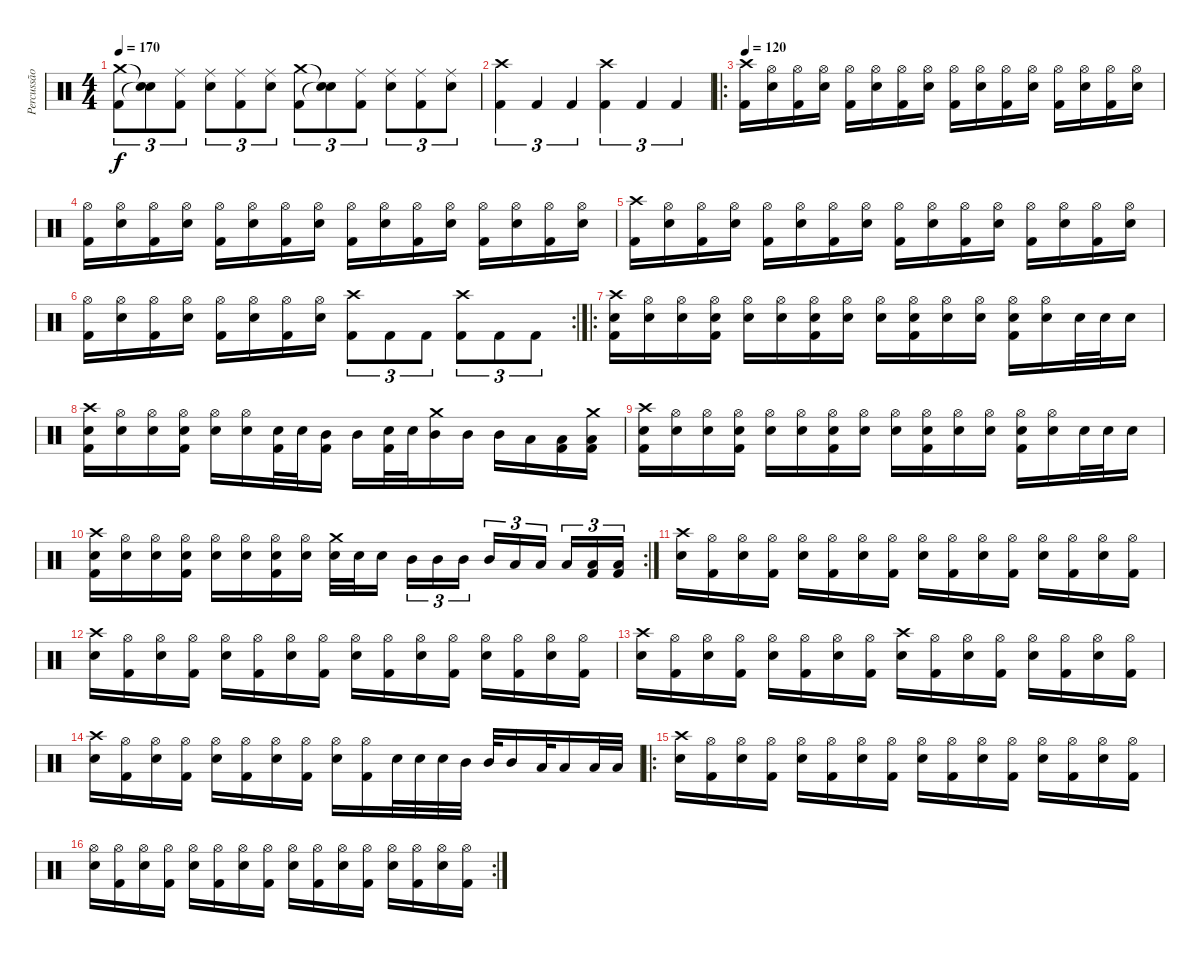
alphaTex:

\track ("Percussão" "Percussão") {instrument percussion}
\staff {score}
\articulation defaults
\ts (4 4)
\tempo 170
\clef neutral
\ks c
("Crash medium (hit)" "Kick (hit) 2").8{tu (3 2) dy f} ("Snare (hit)"{t} "Snare (hit)"{t}).8{tu (3 2)} ("Ride (middle)" "Kick (hit) 2").8{tu (3 2)} ("Ride (middle)" "Snare (hit) 2").8{tu (3 2)} ("Ride (middle)" "Kick (hit) 2").8{tu (3 2)} ("Ride (middle)" "Snare (hit) 2").8{tu (3 2)} ("Crash medium (hit)" "Kick (hit) 2").8{tu (3 2)} ("Snare (hit)"{t} "Snare (hit)"{t}).8{tu (3 2)} ("Ride (middle)" "Kick (hit) 2").8{tu (3 2)} ("Ride (middle)" "Snare (hit) 2").8{tu (3 2)} ("Ride (middle)" "Kick (hit) 2").8{tu (3 2)} ("Ride (middle)" "Snare (hit) 2").8{tu (3 2)} |
("Crash high (hit)" "Kick (hit) 2").4{tu (3 2)} "Kick (hit) 2".4{tu (3 2)} "Kick (hit) 2".4{tu (3 2)} ("Crash high (hit)" "Kick (hit) 2").4{tu (3 2)} "Kick (hit) 2".4{tu (3 2)} "Kick (hit) 2".4{tu (3 2)} |
\ro
\tempo 120
("Crash high (hit)" "Kick (hit) 2").16 ("Hi-Hat (open)" "Snare (hit) 2").16 ("Hi-Hat (open)" "Kick (hit) 2").16 ("Hi-Hat (open)" "Snare (hit) 2").16 ("Hi-Hat (open)" "Kick (hit) 2").16 ("Hi-Hat (open)" "Snare (hit) 2").16 ("Hi-Hat (open)" "Kick (hit) 2").16 ("Hi-Hat (open)" "Snare (hit) 2").16 ("Hi-Hat (open)" "Kick (hit) 2").16 ("Hi-Hat (open)" "Snare (hit) 2").16 ("Hi-Hat (open)" "Kick (hit) 2").16 ("Hi-Hat (open)" "Snare (hit) 2").16 ("Hi-Hat (open)" "Kick (hit) 2").16 ("Hi-Hat (open)" "Snare (hit) 2").16 ("Hi-Hat (open)" "Kick (hit) 2").16 ("Hi-Hat (open)" "Snare (hit) 2").16 |
("Hi-Hat (open)" "Kick (hit) 2").16 ("Hi-Hat (open)" "Snare (hit) 2").16 ("Hi-Hat (open)" "Kick (hit) 2").16 ("Hi-Hat (open)" "Snare (hit) 2").16 ("Hi-Hat (open)" "Kick (hit) 2").16 ("Hi-Hat (open)" "Snare (hit) 2").16 ("Hi-Hat (open)" "Kick (hit) 2").16 ("Hi-Hat (open)" "Snare (hit) 2").16 ("Hi-Hat (open)" "Kick (hit) 2").16 ("Hi-Hat (open)" "Snare (hit) 2").16 ("Hi-Hat (open)" "Kick (hit) 2").16 ("Hi-Hat (open)" "Snare (hit) 2").16 ("Hi-Hat (open)" "Kick (hit) 2").16 ("Hi-Hat (open)" "Snare (hit) 2").16 ("Hi-Hat (open)" "Kick (hit) 2").16 ("Hi-Hat (open)" "Snare (hit) 2").16 |
("Crash high (hit)" "Kick (hit) 2").16 ("Hi-Hat (open)" "Snare (hit) 2").16 ("Hi-Hat (open)" "Kick (hit) 2").16 ("Hi-Hat (open)" "Snare (hit) 2").16 ("Hi-Hat (open)" "Kick (hit) 2").16 ("Hi-Hat (open)" "Snare (hit) 2").16 ("Hi-Hat (open)" "Kick (hit) 2").16 ("Hi-Hat (open)" "Snare (hit) 2").16 ("Hi-Hat (open)" "Kick (hit) 2").16 ("Hi-Hat (open)" "Snare (hit) 2").16 ("Hi-Hat (open)" "Kick (hit) 2").16 ("Hi-Hat (open)" "Snare (hit) 2").16 ("Hi-Hat (open)" "Kick (hit) 2").16 ("Hi-Hat (open)" "Snare (hit) 2").16 ("Hi-Hat (open)" "Kick (hit) 2").16 ("Hi-Hat (open)" "Snare (hit) 2").16 |
\rc 2
("Hi-Hat (open)" "Kick (hit) 2").16 ("Hi-Hat (open)" "Snare (hit) 2").16 ("Hi-Hat (open)" "Kick (hit) 2").16 ("Hi-Hat (open)" "Snare (hit) 2").16 ("Hi-Hat (open)" "Kick (hit) 2").16 ("Hi-Hat (open)" "Snare (hit) 2").16 ("Hi-Hat (open)" "Kick (hit) 2").16 ("Hi-Hat (open)" "Snare (hit) 2").16 ("Kick (hit) 2" "Crash high (hit)").8{tu (3 2)} "Kick (hit) 2".8{tu (3 2)} "Kick (hit) 2".8{tu (3 2)} ("Kick (hit) 2" "Crash high (hit)").8{tu (3 2)} "Kick (hit) 2".8{tu (3 2)} "Kick (hit) 2".8{tu (3 2)} |
\ro
("Kick (hit) 2" "Crash high (hit)" "Snare (hit) 2").16 ("Hi-Hat (open)" "Snare (hit) 2").16 ("Hi-Hat (open)" "Snare (hit) 2").16 ("Kick (hit) 2" "Hi-Hat (open)" "Snare (hit) 2").16 ("Hi-Hat (open)" "Snare (hit) 2").16 ("Hi-Hat (open)" "Snare (hit) 2").16 ("Kick (hit) 2" "Hi-Hat (open)" "Snare (hit) 2").16 ("Hi-Hat (open)" "Snare (hit) 2").16 ("Hi-Hat (open)" "Snare (hit) 2").16 ("Kick (hit) 2" "Hi-Hat (open)" "Snare (hit) 2").16 ("Hi-Hat (open)" "Snare (hit) 2").16 ("Hi-Hat (open)" "Snare (hit) 2").16 ("Kick (hit) 2" "Hi-Hat (open)" "Snare (hit) 2").16 ("Hi-Hat (open)" "Snare (hit) 2").16 "Snare (hit) 2".32 "Snare (hit) 2".32 "Snare (hit) 2".16 |
("Kick (hit) 2" "Crash high (hit)" "Snare (hit) 2").16 ("Hi-Hat (open)" "Snare (hit) 2").16 ("Hi-Hat (open)" "Snare (hit) 2").16 ("Kick (hit) 2" "Hi-Hat (open)" "Snare (hit) 2").16 ("Hi-Hat (open)" "Snare (hit) 2").16 ("Hi-Hat (open)" "Snare (hit) 2").16 ("Kick (hit) 2" "Snare (hit) 2").32 "Snare (hit) 2".32 ("Kick (hit) 2" "Mid Tom (hit)").16 "Mid Tom (hit)".16 ("Kick (hit) 2" "Snare (hit) 2").32 "Snare (hit) 2".32 ("Crash medium (hit)" "Mid Tom (hit)").16 "Mid Tom (hit)".16 "Mid Tom (hit)".16 "Low Tom (hit)".16 ("Kick (hit) 2" "Low Tom (hit)").16 ("Kick (hit) 2" "Crash medium (hit)" "Low Tom (hit)").16 |
("Kick (hit) 2" "Crash high (hit)" "Snare (hit) 2").16 ("Hi-Hat (open)" "Snare (hit) 2").16 ("Hi-Hat (open)" "Snare (hit) 2").16 ("Kick (hit) 2" "Hi-Hat (open)" "Snare (hit) 2").16 ("Hi-Hat (open)" "Snare (hit) 2").16 ("Hi-Hat (open)" "Snare (hit) 2").16 ("Kick (hit) 2" "Hi-Hat (open)" "Snare (hit) 2").16 ("Hi-Hat (open)" "Snare (hit) 2").16 ("Hi-Hat (open)" "Snare (hit) 2").16 ("Kick (hit) 2" "Hi-Hat (open)" "Snare (hit) 2").16 ("Hi-Hat (open)" "Snare (hit) 2").16 ("Hi-Hat (open)" "Snare (hit) 2").16 ("Kick (hit) 2" "Hi-Hat (open)" "Snare (hit) 2").16 ("Hi-Hat (open)" "Snare (hit) 2").16 "Snare (hit) 2".32 "Snare (hit) 2".32 "Snare (hit) 2".16 |
\rc 2
("Kick (hit) 2" "Crash high (hit)" "Snare (hit) 2").16 ("Hi-Hat (open)" "Snare (hit) 2").16 ("Hi-Hat (open)" "Snare (hit) 2").16 ("Kick (hit) 2" "Hi-Hat (open)" "Snare (hit) 2").16 ("Hi-Hat (open)" "Snare (hit) 2").16 ("Hi-Hat (open)" "Snare (hit) 2").16 ("Kick (hit) 2" "Hi-Hat (open)" "Snare (hit) 2").16 ("Hi-Hat (open)" "Snare (hit) 2").16 ("Crash medium (hit)" "Snare (hit) 2").32 "Snare (hit) 2".32 "Snare (hit) 2".16 "Mid Tom (hit)".16{tu (3 2)} "Mid Tom (hit)".16{tu (3 2)} "Mid Tom (hit)".16{tu (3 2)} "Mid Tom (hit)".16{tu (3 2)} "Low Tom (hit)".16{tu (3 2)} "Low Tom (hit)".16{tu (3 2)} "Low Tom (hit)".16{tu (3 2)} ("Kick (hit) 2" "Low Tom (hit)").16{tu (3 2)} ("Kick (hit) 2" "Low Tom (hit)").16{tu (3 2)} |
("Crash high (hit)" "Snare (hit) 2").16 ("Hi-Hat (open)" "Kick (hit) 2").16 ("Hi-Hat (open)" "Snare (hit) 2").16 ("Hi-Hat (open)" "Kick (hit) 2").16 ("Hi-Hat (open)" "Snare (hit) 2").16 ("Hi-Hat (open)" "Kick (hit) 2").16 ("Hi-Hat (open)" "Snare (hit) 2").16 ("Hi-Hat (open)" "Kick (hit) 2").16 ("Hi-Hat (open)" "Snare (hit) 2").16 ("Hi-Hat (open)" "Kick (hit) 2").16 ("Hi-Hat (open)" "Snare (hit) 2").16 ("Hi-Hat (open)" "Kick (hit) 2").16 ("Hi-Hat (open)" "Snare (hit) 2").16 ("Hi-Hat (open)" "Kick (hit) 2").16 ("Hi-Hat (open)" "Snare (hit) 2").16 ("Hi-Hat (open)" "Kick (hit) 2").16 |
("Crash high (hit)" "Snare (hit) 2").16 ("Hi-Hat (open)" "Kick (hit) 2").16 ("Hi-Hat (open)" "Snare (hit) 2").16 ("Hi-Hat (open)" "Kick (hit) 2").16 ("Hi-Hat (open)" "Snare (hit) 2").16 ("Hi-Hat (open)" "Kick (hit) 2").16 ("Hi-Hat (open)" "Snare (hit) 2").16 ("Hi-Hat (open)" "Kick (hit) 2").16 ("Hi-Hat (open)" "Snare (hit) 2").16 ("Hi-Hat (open)" "Kick (hit) 2").16 ("Hi-Hat (open)" "Snare (hit) 2").16 ("Hi-Hat (open)" "Kick (hit) 2").16 ("Hi-Hat (open)" "Snare (hit) 2").16 ("Hi-Hat (open)" "Kick (hit) 2").16 ("Hi-Hat (open)" "Snare (hit) 2").16 ("Hi-Hat (open)" "Kick (hit) 2").16 |
("Crash high (hit)" "Snare (hit) 2").16 ("Hi-Hat (open)" "Kick (hit) 2").16 ("Hi-Hat (open)" "Snare (hit) 2").16 ("Hi-Hat (open)" "Kick (hit) 2").16 ("Hi-Hat (open)" "Snare (hit) 2").16 ("Hi-Hat (open)" "Kick (hit) 2").16 ("Hi-Hat (open)" "Snare (hit) 2").16 ("Hi-Hat (open)" "Kick (hit) 2").16 ("Crash high (hit)" "Snare (hit) 2").16 ("Hi-Hat (open)" "Kick (hit) 2").16 ("Hi-Hat (open)" "Snare (hit) 2").16 ("Hi-Hat (open)" "Kick (hit) 2").16 ("Hi-Hat (open)" "Snare (hit) 2").16 ("Hi-Hat (open)" "Kick (hit) 2").16 ("Hi-Hat (open)" "Snare (hit) 2").16 ("Hi-Hat (open)" "Kick (hit) 2").16 |
("Crash high (hit)" "Snare (hit) 2").16 ("Hi-Hat (open)" "Kick (hit) 2").16 ("Hi-Hat (open)" "Snare (hit) 2").16 ("Hi-Hat (open)" "Kick (hit) 2").16 ("Hi-Hat (open)" "Snare (hit) 2").16 ("Hi-Hat (open)" "Kick (hit) 2").16 ("Hi-Hat (open)" "Snare (hit) 2").16 ("Hi-Hat (open)" "Kick (hit) 2").16 ("Hi-Hat (open)" "Snare (hit) 2").16 ("Hi-Hat (open)" "Kick (hit) 2").16 "Snare (hit) 2".32 "Snare (hit) 2".32 "Snare (hit) 2".32 "Mid Tom (hit)".32 "Mid Tom (hit)".32 "Mid Tom (hit)".16 "Low Tom (hit)".32 "Low Tom (hit)".16 "Low Tom (hit)".32 "Low Tom (hit)".32 |
\ro
("Crash high (hit)" "Snare (hit) 2").16 ("Hi-Hat (open)" "Kick (hit) 2").16 ("Hi-Hat (open)" "Snare (hit) 2").16 ("Hi-Hat (open)" "Kick (hit) 2").16 ("Hi-Hat (open)" "Snare (hit) 2").16 ("Hi-Hat (open)" "Kick (hit) 2").16 ("Hi-Hat (open)" "Snare (hit) 2").16 ("Hi-Hat (open)" "Kick (hit) 2").16 ("Hi-Hat (open)" "Snare (hit) 2").16 ("Hi-Hat (open)" "Kick (hit) 2").16 ("Hi-Hat (open)" "Snare (hit) 2").16 ("Hi-Hat (open)" "Kick (hit) 2").16 ("Hi-Hat (open)" "Snare (hit) 2").16 ("Hi-Hat (open)" "Kick (hit) 2").16 ("Hi-Hat (open)" "Snare (hit) 2").16 ("Hi-Hat (open)" "Kick (hit) 2").16 |
\rc 2
("Hi-Hat (open)" "Snare (hit) 2").16 ("Hi-Hat (open)" "Kick (hit) 2").16 ("Hi-Hat (open)" "Snare (hit) 2").16 ("Hi-Hat (open)" "Kick (hit) 2").16 ("Hi-Hat (open)" "Snare (hit) 2").16 ("Hi-Hat (open)" "Kick (hit) 2").16 ("Hi-Hat (open)" "Snare (hit) 2").16 ("Hi-Hat (open)" "Kick (hit) 2").16 ("Hi-Hat (open)" "Snare (hit) 2").16 ("Hi-Hat (open)" "Kick (hit) 2").16 ("Hi-Hat (open)" "Snare (hit) 2").16 ("Hi-Hat (open)" "Kick (hit) 2").16 ("Hi-Hat (open)" "Snare (hit) 2").16 ("Hi-Hat (open)" "Kick (hit) 2").16 ("Hi-Hat (open)" "Snare (hit) 2").16 ("Hi-Hat (open)" "Kick (hit) 2").16
